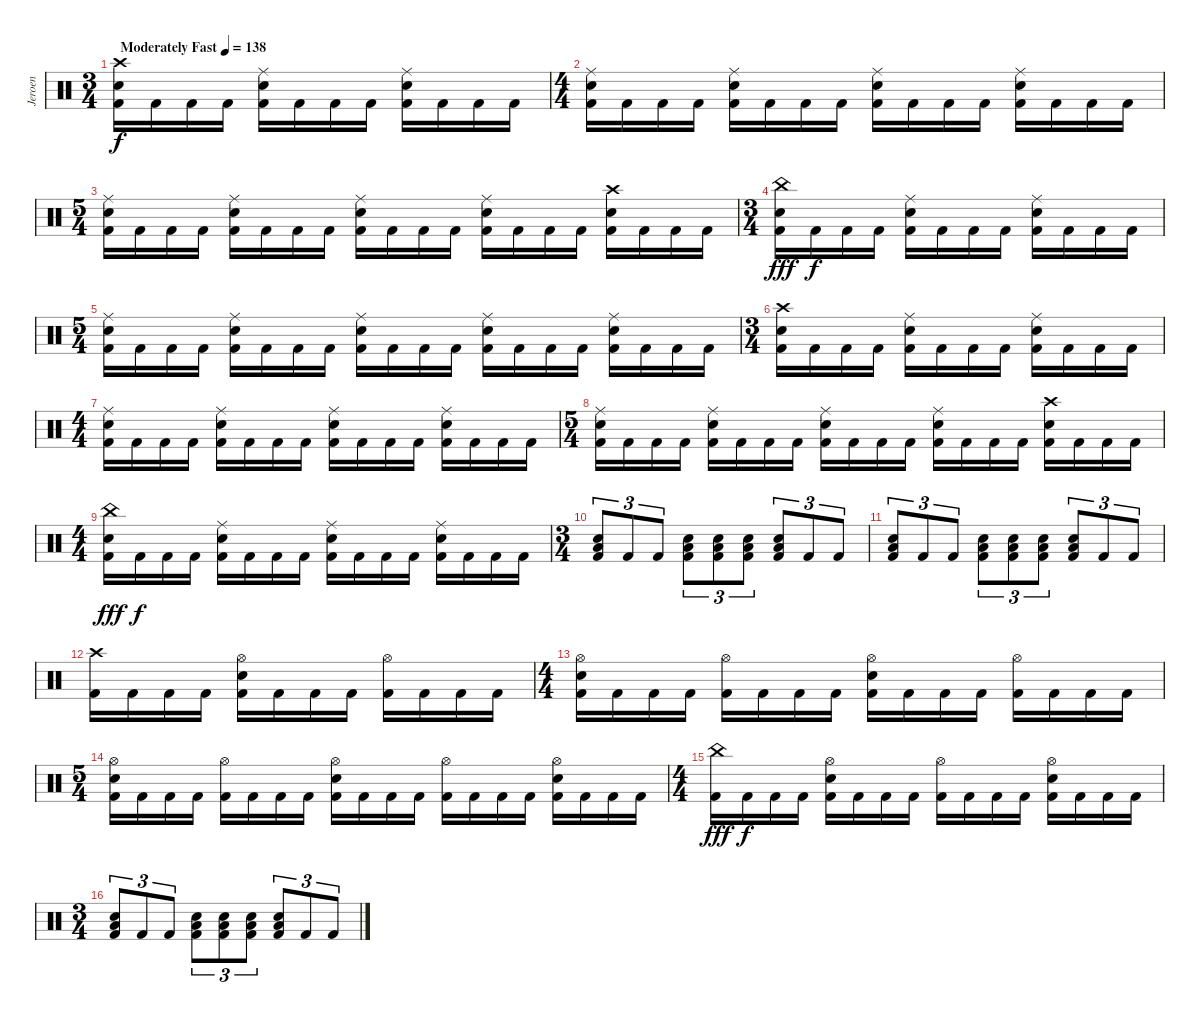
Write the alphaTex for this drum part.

\track ("Jeroen" "Jeroen") {instrument percussion}
\staff {score}
\articulation defaults
\ts (3 4)
\tempo (138 "Moderately Fast")
\clef neutral
\ks c
("Crash high (hit)" "Electric Snare (hit)" "Kick (hit) 2").16{dy f} "Kick (hit) 2".16 "Kick (hit) 2".16 "Kick (hit) 2".16 ("Ride (middle)" "Electric Snare (hit)" "Kick (hit) 2").16 "Kick (hit) 2".16 "Kick (hit) 2".16 "Kick (hit) 2".16 ("Ride (middle)" "Electric Snare (hit)" "Kick (hit) 2").16 "Kick (hit) 2".16 "Kick (hit) 2".16 "Kick (hit) 2".16 |
\ts (4 4)
("Ride (middle)" "Electric Snare (hit)" "Kick (hit) 2").16 "Kick (hit) 2".16 "Kick (hit) 2".16 "Kick (hit) 2".16 ("Ride (middle)" "Electric Snare (hit)" "Kick (hit) 2").16 "Kick (hit) 2".16 "Kick (hit) 2".16 "Kick (hit) 2".16 ("Ride (middle)" "Electric Snare (hit)" "Kick (hit) 2").16 "Kick (hit) 2".16 "Kick (hit) 2".16 "Kick (hit) 2".16 ("Ride (middle)" "Electric Snare (hit)" "Kick (hit) 2").16 "Kick (hit) 2".16 "Kick (hit) 2".16 "Kick (hit) 2".16 |
\ts (5 4)
("Ride (middle)" "Electric Snare (hit)" "Kick (hit) 2").16 "Kick (hit) 2".16 "Kick (hit) 2".16 "Kick (hit) 2".16 ("Ride (middle)" "Electric Snare (hit)" "Kick (hit) 2").16 "Kick (hit) 2".16 "Kick (hit) 2".16 "Kick (hit) 2".16 ("Ride (middle)" "Electric Snare (hit)" "Kick (hit) 2").16 "Kick (hit) 2".16 "Kick (hit) 2".16 "Kick (hit) 2".16 ("Ride (middle)" "Electric Snare (hit)" "Kick (hit) 2").16 "Kick (hit) 2".16 "Kick (hit) 2".16 "Kick (hit) 2".16 ("Crash high (hit)" "Electric Snare (hit)" "Kick (hit) 2").16 "Kick (hit) 2".16 "Kick (hit) 2".16 "Kick (hit) 2".16 |
\ts (3 4)
("China (hit)" "Electric Snare (hit)" "Kick (hit) 2").16{dy fff} "Kick (hit) 2".16{dy f} "Kick (hit) 2".16 "Kick (hit) 2".16 ("Ride (middle)" "Electric Snare (hit)" "Kick (hit) 2").16 "Kick (hit) 2".16 "Kick (hit) 2".16 "Kick (hit) 2".16 ("Ride (middle)" "Electric Snare (hit)" "Kick (hit) 2").16 "Kick (hit) 2".16 "Kick (hit) 2".16 "Kick (hit) 2".16 |
\ts (5 4)
("Ride (middle)" "Electric Snare (hit)" "Kick (hit) 2").16 "Kick (hit) 2".16 "Kick (hit) 2".16 "Kick (hit) 2".16 ("Ride (middle)" "Electric Snare (hit)" "Kick (hit) 2").16 "Kick (hit) 2".16 "Kick (hit) 2".16 "Kick (hit) 2".16 ("Ride (middle)" "Electric Snare (hit)" "Kick (hit) 2").16 "Kick (hit) 2".16 "Kick (hit) 2".16 "Kick (hit) 2".16 ("Ride (middle)" "Electric Snare (hit)" "Kick (hit) 2").16 "Kick (hit) 2".16 "Kick (hit) 2".16 "Kick (hit) 2".16 ("Ride (middle)" "Electric Snare (hit)" "Kick (hit) 2").16 "Kick (hit) 2".16 "Kick (hit) 2".16 "Kick (hit) 2".16 |
\ts (3 4)
("Crash high (hit)" "Electric Snare (hit)" "Kick (hit) 2").16 "Kick (hit) 2".16 "Kick (hit) 2".16 "Kick (hit) 2".16 ("Ride (middle)" "Electric Snare (hit)" "Kick (hit) 2").16 "Kick (hit) 2".16 "Kick (hit) 2".16 "Kick (hit) 2".16 ("Ride (middle)" "Electric Snare (hit)" "Kick (hit) 2").16 "Kick (hit) 2".16 "Kick (hit) 2".16 "Kick (hit) 2".16 |
\ts (4 4)
("Ride (middle)" "Electric Snare (hit)" "Kick (hit) 2").16 "Kick (hit) 2".16 "Kick (hit) 2".16 "Kick (hit) 2".16 ("Ride (middle)" "Electric Snare (hit)" "Kick (hit) 2").16 "Kick (hit) 2".16 "Kick (hit) 2".16 "Kick (hit) 2".16 ("Ride (middle)" "Electric Snare (hit)" "Kick (hit) 2").16 "Kick (hit) 2".16 "Kick (hit) 2".16 "Kick (hit) 2".16 ("Ride (middle)" "Electric Snare (hit)" "Kick (hit) 2").16 "Kick (hit) 2".16 "Kick (hit) 2".16 "Kick (hit) 2".16 |
\ts (5 4)
("Ride (middle)" "Electric Snare (hit)" "Kick (hit) 2").16 "Kick (hit) 2".16 "Kick (hit) 2".16 "Kick (hit) 2".16 ("Ride (middle)" "Electric Snare (hit)" "Kick (hit) 2").16 "Kick (hit) 2".16 "Kick (hit) 2".16 "Kick (hit) 2".16 ("Ride (middle)" "Electric Snare (hit)" "Kick (hit) 2").16 "Kick (hit) 2".16 "Kick (hit) 2".16 "Kick (hit) 2".16 ("Ride (middle)" "Electric Snare (hit)" "Kick (hit) 2").16 "Kick (hit) 2".16 "Kick (hit) 2".16 "Kick (hit) 2".16 ("Crash high (hit)" "Electric Snare (hit)" "Kick (hit) 2").16 "Kick (hit) 2".16 "Kick (hit) 2".16 "Kick (hit) 2".16 |
\ts (4 4)
("China (hit)" "Electric Snare (hit)" "Kick (hit) 2").16{dy fff} "Kick (hit) 2".16{dy f} "Kick (hit) 2".16 "Kick (hit) 2".16 ("Ride (middle)" "Electric Snare (hit)" "Kick (hit) 2").16 "Kick (hit) 2".16 "Kick (hit) 2".16 "Kick (hit) 2".16 ("Ride (middle)" "Electric Snare (hit)" "Kick (hit) 2").16 "Kick (hit) 2".16 "Kick (hit) 2".16 "Kick (hit) 2".16 ("Ride (middle)" "Electric Snare (hit)" "Kick (hit) 2").16 "Kick (hit) 2".16 "Kick (hit) 2".16 "Kick (hit) 2".16 |
\ts (3 4)
("Low Tom (hit)" "Electric Snare (hit)" "Kick (hit) 2").8{tu (3 2)} "Kick (hit) 2".8{tu (3 2)} "Kick (hit) 2".8{tu (3 2)} ("Low Tom (hit)" "Electric Snare (hit)" "Kick (hit) 2").8{tu (3 2)} ("Low Tom (hit)" "Electric Snare (hit)" "Kick (hit) 2").8{tu (3 2)} ("Low Tom (hit)" "Electric Snare (hit)" "Kick (hit) 2").8{tu (3 2)} ("Low Tom (hit)" "Electric Snare (hit)" "Kick (hit) 2").8{tu (3 2)} "Kick (hit) 2".8{tu (3 2)} "Kick (hit) 2".8{tu (3 2)} |
("Low Tom (hit)" "Electric Snare (hit)" "Kick (hit) 2").8{tu (3 2)} "Kick (hit) 2".8{tu (3 2)} "Kick (hit) 2".8{tu (3 2)} ("Low Tom (hit)" "Electric Snare (hit)" "Kick (hit) 2").8{tu (3 2)} ("Low Tom (hit)" "Electric Snare (hit)" "Kick (hit) 2").8{tu (3 2)} ("Low Tom (hit)" "Electric Snare (hit)" "Kick (hit) 2").8{tu (3 2)} ("Low Tom (hit)" "Electric Snare (hit)" "Kick (hit) 2").8{tu (3 2)} "Kick (hit) 2".8{tu (3 2)} "Kick (hit) 2".8{tu (3 2)} |
("Crash high (hit)" "Kick (hit) 2").16 "Kick (hit) 2".16 "Kick (hit) 2".16 "Kick (hit) 2".16 ("Hi-Hat (open)" "Electric Snare (hit)" "Kick (hit) 2").16 "Kick (hit) 2".16 "Kick (hit) 2".16 "Kick (hit) 2".16 ("Hi-Hat (open)" "Kick (hit) 2").16 "Kick (hit) 2".16 "Kick (hit) 2".16 "Kick (hit) 2".16 |
\ts (4 4)
("Hi-Hat (open)" "Electric Snare (hit)" "Kick (hit) 2").16 "Kick (hit) 2".16 "Kick (hit) 2".16 "Kick (hit) 2".16 ("Hi-Hat (open)" "Kick (hit) 2").16 "Kick (hit) 2".16 "Kick (hit) 2".16 "Kick (hit) 2".16 ("Hi-Hat (open)" "Electric Snare (hit)" "Kick (hit) 2").16 "Kick (hit) 2".16 "Kick (hit) 2".16 "Kick (hit) 2".16 ("Hi-Hat (open)" "Kick (hit) 2").16 "Kick (hit) 2".16 "Kick (hit) 2".16 "Kick (hit) 2".16 |
\ts (5 4)
("Hi-Hat (open)" "Electric Snare (hit)" "Kick (hit) 2").16 "Kick (hit) 2".16 "Kick (hit) 2".16 "Kick (hit) 2".16 ("Hi-Hat (open)" "Kick (hit) 2").16 "Kick (hit) 2".16 "Kick (hit) 2".16 "Kick (hit) 2".16 ("Hi-Hat (open)" "Electric Snare (hit)" "Kick (hit) 2").16 "Kick (hit) 2".16 "Kick (hit) 2".16 "Kick (hit) 2".16 ("Hi-Hat (open)" "Kick (hit) 2").16 "Kick (hit) 2".16 "Kick (hit) 2".16 "Kick (hit) 2".16 ("Hi-Hat (open)" "Electric Snare (hit)" "Kick (hit) 2").16 "Kick (hit) 2".16 "Kick (hit) 2".16 "Kick (hit) 2".16 |
\ts (4 4)
("China (hit)" "Kick (hit) 2").16{dy fff} "Kick (hit) 2".16{dy f} "Kick (hit) 2".16 "Kick (hit) 2".16 ("Hi-Hat (open)" "Electric Snare (hit)" "Kick (hit) 2").16 "Kick (hit) 2".16 "Kick (hit) 2".16 "Kick (hit) 2".16 ("Hi-Hat (open)" "Kick (hit) 2").16 "Kick (hit) 2".16 "Kick (hit) 2".16 "Kick (hit) 2".16 ("Hi-Hat (open)" "Electric Snare (hit)" "Kick (hit) 2").16 "Kick (hit) 2".16 "Kick (hit) 2".16 "Kick (hit) 2".16 |
\ts (3 4)
("Low Tom (hit)" "Electric Snare (hit)" "Kick (hit) 2").8{tu (3 2)} "Kick (hit) 2".8{tu (3 2)} "Kick (hit) 2".8{tu (3 2)} ("Low Tom (hit)" "Electric Snare (hit)" "Kick (hit) 2").8{tu (3 2)} ("Low Tom (hit)" "Electric Snare (hit)" "Kick (hit) 2").8{tu (3 2)} ("Low Tom (hit)" "Electric Snare (hit)" "Kick (hit) 2").8{tu (3 2)} ("Low Tom (hit)" "Electric Snare (hit)" "Kick (hit) 2").8{tu (3 2)} "Kick (hit) 2".8{tu (3 2)} "Kick (hit) 2".8{tu (3 2)}
